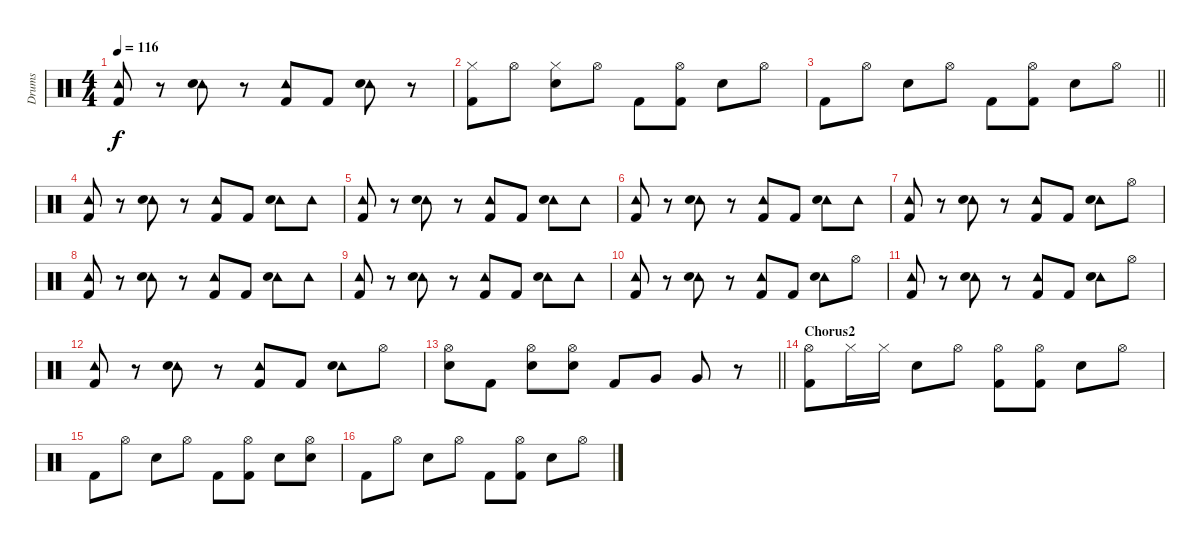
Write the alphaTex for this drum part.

\track ("Drums" "Drums") {instrument percussion}
\staff {score}
\articulation defaults
\ts (4 4)
\tempo 116
\clef neutral
\ks c
("Tambourine (hit)" "Kick (hit) 2").8{dy f} r.8 ("Tambourine (hit)" "Electric Snare (hit)").8 r.8 ("Tambourine (hit)" "Kick (hit) 2").8 "Kick (hit) 2".8 ("Tambourine (hit)" "Electric Snare (hit)").8 r.8 |
("Hi-Hat (closed)" "Kick (hit) 2").8 "Hi-Hat (open)".8 ("Hi-Hat (closed)" "Electric Snare (hit)").8 "Hi-Hat (open)".8 "Kick (hit) 2".8 ("Hi-Hat (open)" "Kick (hit) 2").8 "Electric Snare (hit)".8 "Hi-Hat (open)".8 |
\barLineRight lightlight "Kick (hit) 2".8 "Hi-Hat (open)".8 "Electric Snare (hit)".8 "Hi-Hat (open)".8 "Kick (hit) 2".8
("Hi-Hat (open)" "Kick (hit) 2").8 "Electric Snare (hit)".8 "Hi-Hat (open)".8 |
("Tambourine (hit)" "Kick (hit) 2").8 r.8 ("Tambourine (hit)" "Electric Snare (hit)").8 r.8 ("Tambourine (hit)" "Kick (hit) 2").8 "Kick (hit) 2".8 ("Tambourine (hit)" "Electric Snare (hit)").8 "Tambourine (hit)".8 |
("Tambourine (hit)" "Kick (hit) 2").8 r.8 ("Tambourine (hit)" "Electric Snare (hit)").8 r.8 ("Tambourine (hit)" "Kick (hit) 2").8 "Kick (hit) 2".8 ("Tambourine (hit)" "Electric Snare (hit)").8 "Tambourine (hit)".8 |
("Tambourine (hit)" "Kick (hit) 2").8 r.8 ("Tambourine (hit)" "Electric Snare (hit)").8 r.8 ("Tambourine (hit)" "Kick (hit) 2").8 "Kick (hit) 2".8 ("Tambourine (hit)" "Electric Snare (hit)").8 "Tambourine (hit)".8 |
("Tambourine (hit)" "Kick (hit) 2").8 r.8 ("Tambourine (hit)" "Electric Snare (hit)").8 r.8 ("Tambourine (hit)" "Kick (hit) 2").8 "Kick (hit) 2".8 ("Tambourine (hit)" "Electric Snare (hit)").8 "Hi-Hat (open)".8 |
("Tambourine (hit)" "Kick (hit) 2").8 r.8 ("Tambourine (hit)" "Electric Snare (hit)").8 r.8 ("Tambourine (hit)" "Kick (hit) 2").8 "Kick (hit) 2".8 ("Tambourine (hit)" "Electric Snare (hit)").8 "Tambourine (hit)".8 |
("Tambourine (hit)" "Kick (hit) 2").8 r.8 ("Tambourine (hit)" "Electric Snare (hit)").8 r.8 ("Tambourine (hit)" "Kick (hit) 2").8 "Kick (hit) 2".8 ("Tambourine (hit)" "Electric Snare (hit)").8 "Tambourine (hit)".8 |
("Tambourine (hit)" "Kick (hit) 2").8 r.8 ("Tambourine (hit)" "Electric Snare (hit)").8 r.8 ("Tambourine (hit)" "Kick (hit) 2").8 "Kick (hit) 2".8 ("Tambourine (hit)" "Electric Snare (hit)").8 "Hi-Hat (open)".8 |
("Tambourine (hit)" "Kick (hit) 2").8 r.8 ("Tambourine (hit)" "Electric Snare (hit)").8 r.8 ("Tambourine (hit)" "Kick (hit) 2").8 "Kick (hit) 2".8 ("Tambourine (hit)" "Electric Snare (hit)").8 "Hi-Hat (open)".8 |
("Tambourine (hit)" "Kick (hit) 2").8 r.8 ("Tambourine (hit)" "Electric Snare (hit)").8 r.8 ("Tambourine (hit)" "Kick (hit) 2").8 "Kick (hit) 2".8 ("Tambourine (hit)" "Electric Snare (hit)").8 "Hi-Hat (open)".8 |
\barLineRight lightlight
("Hi-Hat (open)" "Electric Snare (hit)").8 "Kick (hit) 2".8 ("Hi-Hat (open)" "Electric Snare (hit)").8 ("Hi-Hat (open)" "Electric Snare (hit)").8 "Kick (hit) 2".8 "Very Low Tom (hit)".8 "Very Low Tom (hit)".8 r.8 |
\section ("" "Chorus2")
("Hi-Hat (open)" "Kick (hit) 2").8 "Hi-Hat (closed)".16 "Hi-Hat (closed)".16 "Electric Snare (hit)".8 "Hi-Hat (open)".8 ("Hi-Hat (open)" "Kick (hit) 2").8 ("Hi-Hat (open)" "Kick (hit) 2").8 "Electric Snare (hit)".8 "Hi-Hat (open)".8 |
"Kick (hit) 2".8 "Hi-Hat (open)".8 "Electric Snare (hit)".8 "Hi-Hat (open)".8 "Kick (hit) 2".8 ("Hi-Hat (open)" "Kick (hit) 2").8 "Electric Snare (hit)".8 ("Hi-Hat (open)" "Electric Snare (hit)").8 |
"Kick (hit) 2".8 "Hi-Hat (open)".8 "Electric Snare (hit)".8 "Hi-Hat (open)".8 "Kick (hit) 2".8 ("Hi-Hat (open)" "Kick (hit) 2").8 "Electric Snare (hit)".8 "Hi-Hat (open)".8
